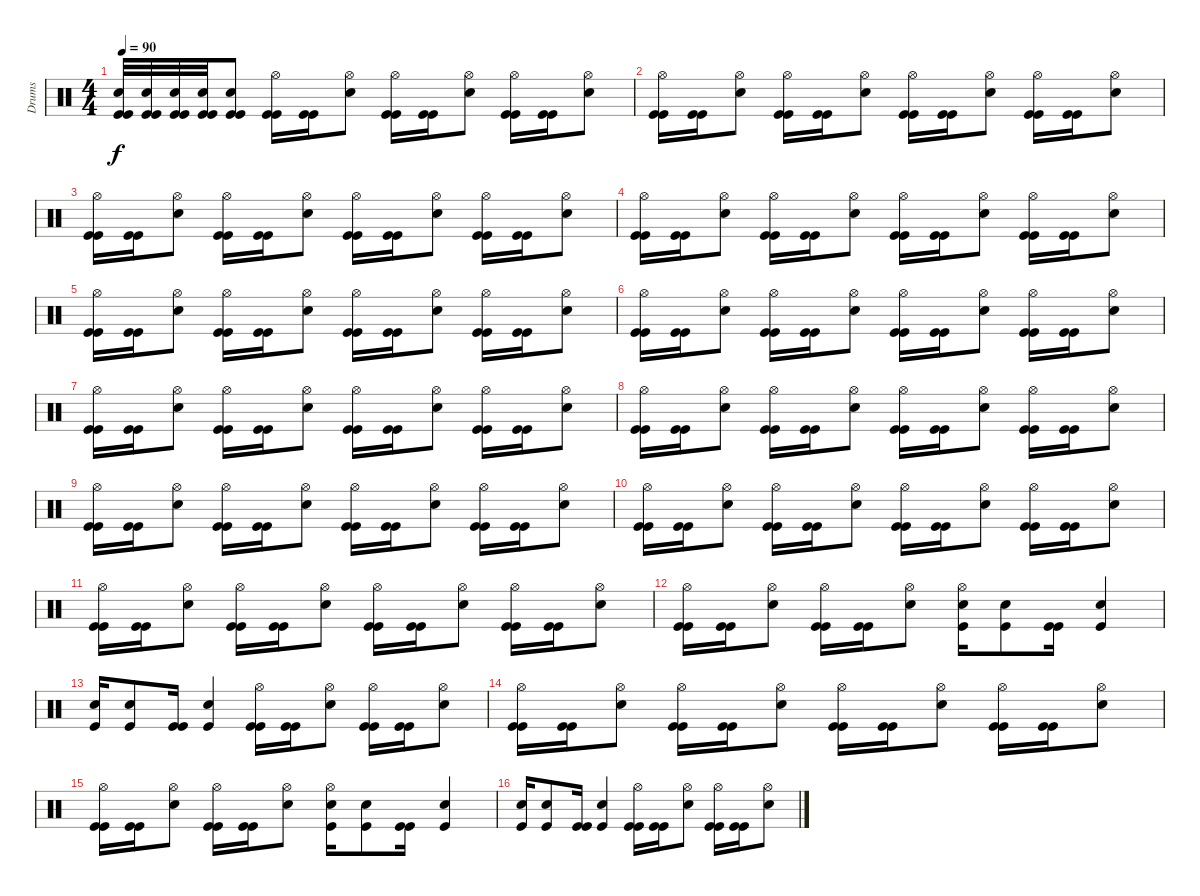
\track ("Drums" "Drums") {instrument percussion}
\staff {score}
\articulation defaults
\ts (4 4)
\tempo 90
\clef neutral
\ks c
("Kick (hit)" "Kick (hit)" "Electric Snare (hit)").32{dy f} ("Kick (hit)" "Kick (hit)" "Electric Snare (hit)").32 ("Kick (hit)" "Kick (hit)" "Electric Snare (hit)").32 ("Kick (hit)" "Kick (hit)" "Electric Snare (hit)").32 ("Kick (hit)" "Kick (hit)" "Electric Snare (hit)").8 ("Hi-Hat (open)" "Kick (hit)" "Kick (hit)").16 ("Kick (hit)" "Kick (hit)").16 ("Hi-Hat (open)" "Electric Snare (hit)").8 ("Hi-Hat (open)" "Kick (hit)" "Kick (hit)").16 ("Kick (hit)" "Kick (hit)").16 ("Hi-Hat (open)" "Electric Snare (hit)").8 ("Hi-Hat (open)" "Kick (hit)" "Kick (hit)").16 ("Kick (hit)" "Kick (hit)").16 ("Hi-Hat (open)" "Electric Snare (hit)").8 |
("Hi-Hat (open)" "Kick (hit)" "Kick (hit)").16 ("Kick (hit)" "Kick (hit)").16 ("Hi-Hat (open)" "Electric Snare (hit)").8 ("Hi-Hat (open)" "Kick (hit)" "Kick (hit)").16 ("Kick (hit)" "Kick (hit)").16 ("Hi-Hat (open)" "Electric Snare (hit)").8 ("Hi-Hat (open)" "Kick (hit)" "Kick (hit)").16 ("Kick (hit)" "Kick (hit)").16 ("Hi-Hat (open)" "Electric Snare (hit)").8 ("Hi-Hat (open)" "Kick (hit)" "Kick (hit)").16 ("Kick (hit)" "Kick (hit)").16 ("Hi-Hat (open)" "Electric Snare (hit)").8 |
("Hi-Hat (open)" "Kick (hit)" "Kick (hit)").16 ("Kick (hit)" "Kick (hit)").16 ("Hi-Hat (open)" "Electric Snare (hit)").8 ("Hi-Hat (open)" "Kick (hit)" "Kick (hit)").16 ("Kick (hit)" "Kick (hit)").16 ("Hi-Hat (open)" "Electric Snare (hit)").8 ("Hi-Hat (open)" "Kick (hit)" "Kick (hit)").16 ("Kick (hit)" "Kick (hit)").16 ("Hi-Hat (open)" "Electric Snare (hit)").8 ("Hi-Hat (open)" "Kick (hit)" "Kick (hit)").16 ("Kick (hit)" "Kick (hit)").16 ("Hi-Hat (open)" "Electric Snare (hit)").8 |
("Hi-Hat (open)" "Kick (hit)" "Kick (hit)").16 ("Kick (hit)" "Kick (hit)").16 ("Hi-Hat (open)" "Electric Snare (hit)").8 ("Hi-Hat (open)" "Kick (hit)" "Kick (hit)").16 ("Kick (hit)" "Kick (hit)").16 ("Hi-Hat (open)" "Electric Snare (hit)").8 ("Hi-Hat (open)" "Kick (hit)" "Kick (hit)").16 ("Kick (hit)" "Kick (hit)").16 ("Hi-Hat (open)" "Electric Snare (hit)").8 ("Hi-Hat (open)" "Kick (hit)" "Kick (hit)").16 ("Kick (hit)" "Kick (hit)").16 ("Hi-Hat (open)" "Electric Snare (hit)").8 |
("Hi-Hat (open)" "Kick (hit)" "Kick (hit)").16 ("Kick (hit)" "Kick (hit)").16 ("Hi-Hat (open)" "Electric Snare (hit)").8 ("Hi-Hat (open)" "Kick (hit)" "Kick (hit)").16 ("Kick (hit)" "Kick (hit)").16 ("Hi-Hat (open)" "Electric Snare (hit)").8 ("Hi-Hat (open)" "Kick (hit)" "Kick (hit)").16 ("Kick (hit)" "Kick (hit)").16 ("Hi-Hat (open)" "Electric Snare (hit)").8 ("Hi-Hat (open)" "Kick (hit)" "Kick (hit)").16 ("Kick (hit)" "Kick (hit)").16 ("Hi-Hat (open)" "Electric Snare (hit)").8 |
("Hi-Hat (open)" "Kick (hit)" "Kick (hit)").16 ("Kick (hit)" "Kick (hit)").16 ("Hi-Hat (open)" "Electric Snare (hit)").8 ("Hi-Hat (open)" "Kick (hit)" "Kick (hit)").16 ("Kick (hit)" "Kick (hit)").16 ("Hi-Hat (open)" "Electric Snare (hit)").8 ("Hi-Hat (open)" "Kick (hit)" "Kick (hit)").16 ("Kick (hit)" "Kick (hit)").16 ("Hi-Hat (open)" "Electric Snare (hit)").8 ("Hi-Hat (open)" "Kick (hit)" "Kick (hit)").16 ("Kick (hit)" "Kick (hit)").16 ("Hi-Hat (open)" "Electric Snare (hit)").8 |
("Hi-Hat (open)" "Kick (hit)" "Kick (hit)").16 ("Kick (hit)" "Kick (hit)").16 ("Hi-Hat (open)" "Electric Snare (hit)").8 ("Hi-Hat (open)" "Kick (hit)" "Kick (hit)").16 ("Kick (hit)" "Kick (hit)").16 ("Hi-Hat (open)" "Electric Snare (hit)").8 ("Hi-Hat (open)" "Kick (hit)" "Kick (hit)").16 ("Kick (hit)" "Kick (hit)").16 ("Hi-Hat (open)" "Electric Snare (hit)").8 ("Hi-Hat (open)" "Kick (hit)" "Kick (hit)").16 ("Kick (hit)" "Kick (hit)").16 ("Hi-Hat (open)" "Electric Snare (hit)").8 |
("Hi-Hat (open)" "Kick (hit)" "Kick (hit)").16 ("Kick (hit)" "Kick (hit)").16 ("Hi-Hat (open)" "Electric Snare (hit)").8 ("Hi-Hat (open)" "Kick (hit)" "Kick (hit)").16 ("Kick (hit)" "Kick (hit)").16 ("Hi-Hat (open)" "Electric Snare (hit)").8 ("Hi-Hat (open)" "Kick (hit)" "Kick (hit)").16 ("Kick (hit)" "Kick (hit)").16 ("Hi-Hat (open)" "Electric Snare (hit)").8 ("Hi-Hat (open)" "Kick (hit)" "Kick (hit)").16 ("Kick (hit)" "Kick (hit)").16 ("Hi-Hat (open)" "Electric Snare (hit)").8 |
("Hi-Hat (open)" "Kick (hit)" "Kick (hit)").16 ("Kick (hit)" "Kick (hit)").16 ("Hi-Hat (open)" "Electric Snare (hit)").8 ("Hi-Hat (open)" "Kick (hit)" "Kick (hit)").16 ("Kick (hit)" "Kick (hit)").16 ("Hi-Hat (open)" "Electric Snare (hit)").8 ("Hi-Hat (open)" "Kick (hit)" "Kick (hit)").16 ("Kick (hit)" "Kick (hit)").16 ("Hi-Hat (open)" "Electric Snare (hit)").8 ("Hi-Hat (open)" "Kick (hit)" "Kick (hit)").16 ("Kick (hit)" "Kick (hit)").16 ("Hi-Hat (open)" "Electric Snare (hit)").8 |
("Hi-Hat (open)" "Kick (hit)" "Kick (hit)").16 ("Kick (hit)" "Kick (hit)").16 ("Hi-Hat (open)" "Electric Snare (hit)").8 ("Hi-Hat (open)" "Kick (hit)" "Kick (hit)").16 ("Kick (hit)" "Kick (hit)").16 ("Hi-Hat (open)" "Electric Snare (hit)").8 ("Hi-Hat (open)" "Kick (hit)" "Kick (hit)").16 ("Kick (hit)" "Kick (hit)").16 ("Hi-Hat (open)" "Electric Snare (hit)").8 ("Hi-Hat (open)" "Kick (hit)" "Kick (hit)").16 ("Kick (hit)" "Kick (hit)").16 ("Hi-Hat (open)" "Electric Snare (hit)").8 |
("Hi-Hat (open)" "Kick (hit)" "Kick (hit)").16 ("Kick (hit)" "Kick (hit)").16 ("Hi-Hat (open)" "Electric Snare (hit)").8 ("Hi-Hat (open)" "Kick (hit)" "Kick (hit)").16 ("Kick (hit)" "Kick (hit)").16 ("Hi-Hat (open)" "Electric Snare (hit)").8 ("Hi-Hat (open)" "Kick (hit)" "Kick (hit)").16 ("Kick (hit)" "Kick (hit)").16 ("Hi-Hat (open)" "Electric Snare (hit)").8 ("Hi-Hat (open)" "Kick (hit)" "Kick (hit)").16 ("Kick (hit)" "Kick (hit)").16 ("Hi-Hat (open)" "Electric Snare (hit)").8 |
("Hi-Hat (open)" "Kick (hit)" "Kick (hit)").16 ("Kick (hit)" "Kick (hit)").16 ("Hi-Hat (open)" "Electric Snare (hit)").8 ("Hi-Hat (open)" "Kick (hit)" "Kick (hit)").16 ("Kick (hit)" "Kick (hit)").16 ("Hi-Hat (open)" "Electric Snare (hit)").8 ("Hi-Hat (open)" "Electric Snare (hit)" "Kick (hit)").16 ("Electric Snare (hit)" "Kick (hit)").8 ("Kick (hit)" "Kick (hit)").16 ("Electric Snare (hit)" "Kick (hit)").4 |
("Electric Snare (hit)" "Kick (hit)").16 ("Electric Snare (hit)" "Kick (hit)").8 ("Kick (hit)" "Kick (hit)").16 ("Electric Snare (hit)" "Kick (hit)").4 ("Hi-Hat (open)" "Kick (hit)" "Kick (hit)").16 ("Kick (hit)" "Kick (hit)").16 ("Hi-Hat (open)" "Electric Snare (hit)").8 ("Hi-Hat (open)" "Kick (hit)" "Kick (hit)").16 ("Kick (hit)" "Kick (hit)").16 ("Hi-Hat (open)" "Electric Snare (hit)").8 |
("Hi-Hat (open)" "Kick (hit)" "Kick (hit)").16 ("Kick (hit)" "Kick (hit)").16 ("Hi-Hat (open)" "Electric Snare (hit)").8 ("Hi-Hat (open)" "Kick (hit)" "Kick (hit)").16 ("Kick (hit)" "Kick (hit)").16 ("Hi-Hat (open)" "Electric Snare (hit)").8 ("Hi-Hat (open)" "Kick (hit)" "Kick (hit)").16 ("Kick (hit)" "Kick (hit)").16 ("Hi-Hat (open)" "Electric Snare (hit)").8 ("Hi-Hat (open)" "Kick (hit)" "Kick (hit)").16 ("Kick (hit)" "Kick (hit)").16 ("Hi-Hat (open)" "Electric Snare (hit)").8 |
("Hi-Hat (open)" "Kick (hit)" "Kick (hit)").16 ("Kick (hit)" "Kick (hit)").16 ("Hi-Hat (open)" "Electric Snare (hit)").8 ("Hi-Hat (open)" "Kick (hit)" "Kick (hit)").16 ("Kick (hit)" "Kick (hit)").16 ("Hi-Hat (open)" "Electric Snare (hit)").8 ("Hi-Hat (open)" "Electric Snare (hit)" "Kick (hit)").16 ("Electric Snare (hit)" "Kick (hit)").8 ("Kick (hit)" "Kick (hit)").16 ("Electric Snare (hit)" "Kick (hit)").4 |
("Electric Snare (hit)" "Kick (hit)").16 ("Electric Snare (hit)" "Kick (hit)").8 ("Kick (hit)" "Kick (hit)").16 ("Electric Snare (hit)" "Kick (hit)").4 ("Hi-Hat (open)" "Kick (hit)" "Kick (hit)").16 ("Kick (hit)" "Kick (hit)").16 ("Hi-Hat (open)" "Electric Snare (hit)").8 ("Hi-Hat (open)" "Kick (hit)" "Kick (hit)").16 ("Kick (hit)" "Kick (hit)").16 ("Hi-Hat (open)" "Electric Snare (hit)").8
